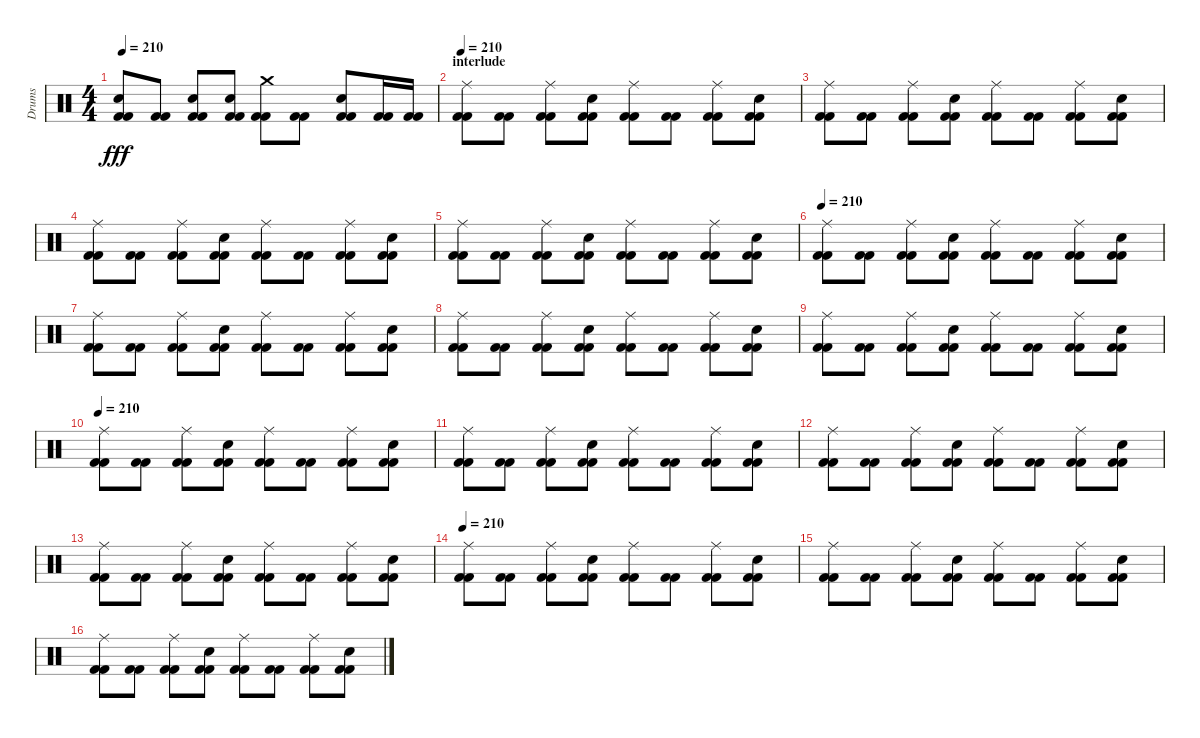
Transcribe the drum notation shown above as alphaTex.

\track ("Drums" "Drums") {instrument percussion}
\staff {score}
\articulation defaults
\ts (4 4)
\tempo 210
\clef neutral
\ks c
("Electric Snare (hit)" "Kick (hit) 2" "Kick (hit) 2").8{dy fff} ("Kick (hit) 2" "Kick (hit) 2").8 ("Electric Snare (hit)" "Kick (hit) 2" "Kick (hit) 2").8 ("Electric Snare (hit)" "Kick (hit) 2" "Kick (hit) 2").8 ("Crash medium (hit)" "Kick (hit) 2" "Kick (hit) 2").8 ("Kick (hit) 2" "Kick (hit) 2").8 ("Electric Snare (hit)" "Kick (hit) 2" "Kick (hit) 2").8 ("Kick (hit) 2" "Kick (hit) 2").16 ("Kick (hit) 2" "Kick (hit) 2").16 |
\section ("" "interlude")
\tempo 210
("Ride (middle)" "Kick (hit) 2" "Kick (hit) 2").8 ("Kick (hit) 2" "Kick (hit) 2").8 ("Ride (middle)" "Kick (hit) 2" "Kick (hit) 2").8 ("Electric Snare (hit)" "Kick (hit) 2" "Kick (hit) 2").8 ("Ride (middle)" "Kick (hit) 2" "Kick (hit) 2").8 ("Kick (hit) 2" "Kick (hit) 2").8 ("Ride (middle)" "Kick (hit) 2" "Kick (hit) 2").8 ("Electric Snare (hit)" "Kick (hit) 2" "Kick (hit) 2").8 |
("Ride (middle)" "Kick (hit) 2" "Kick (hit) 2").8 ("Kick (hit) 2" "Kick (hit) 2").8 ("Ride (middle)" "Kick (hit) 2" "Kick (hit) 2").8 ("Electric Snare (hit)" "Kick (hit) 2" "Kick (hit) 2").8 ("Ride (middle)" "Kick (hit) 2" "Kick (hit) 2").8 ("Kick (hit) 2" "Kick (hit) 2").8 ("Ride (middle)" "Kick (hit) 2" "Kick (hit) 2").8 ("Electric Snare (hit)" "Kick (hit) 2" "Kick (hit) 2").8 |
("Ride (middle)" "Kick (hit) 2" "Kick (hit) 2").8 ("Kick (hit) 2" "Kick (hit) 2").8 ("Ride (middle)" "Kick (hit) 2" "Kick (hit) 2").8 ("Electric Snare (hit)" "Kick (hit) 2" "Kick (hit) 2").8 ("Ride (middle)" "Kick (hit) 2" "Kick (hit) 2").8 ("Kick (hit) 2" "Kick (hit) 2").8 ("Ride (middle)" "Kick (hit) 2" "Kick (hit) 2").8 ("Electric Snare (hit)" "Kick (hit) 2" "Kick (hit) 2").8 |
("Ride (middle)" "Kick (hit) 2" "Kick (hit) 2").8 ("Kick (hit) 2" "Kick (hit) 2").8 ("Ride (middle)" "Kick (hit) 2" "Kick (hit) 2").8 ("Electric Snare (hit)" "Kick (hit) 2" "Kick (hit) 2").8 ("Ride (middle)" "Kick (hit) 2" "Kick (hit) 2").8 ("Kick (hit) 2" "Kick (hit) 2").8 ("Ride (middle)" "Kick (hit) 2" "Kick (hit) 2").8 ("Electric Snare (hit)" "Kick (hit) 2" "Kick (hit) 2").8 |
\tempo 210
("Ride (middle)" "Kick (hit) 2" "Kick (hit) 2").8 ("Kick (hit) 2" "Kick (hit) 2").8 ("Ride (middle)" "Kick (hit) 2" "Kick (hit) 2").8 ("Electric Snare (hit)" "Kick (hit) 2" "Kick (hit) 2").8 ("Ride (middle)" "Kick (hit) 2" "Kick (hit) 2").8 ("Kick (hit) 2" "Kick (hit) 2").8 ("Ride (middle)" "Kick (hit) 2" "Kick (hit) 2").8 ("Electric Snare (hit)" "Kick (hit) 2" "Kick (hit) 2").8 |
("Ride (middle)" "Kick (hit) 2" "Kick (hit) 2").8 ("Kick (hit) 2" "Kick (hit) 2").8 ("Ride (middle)" "Kick (hit) 2" "Kick (hit) 2").8 ("Electric Snare (hit)" "Kick (hit) 2" "Kick (hit) 2").8 ("Ride (middle)" "Kick (hit) 2" "Kick (hit) 2").8 ("Kick (hit) 2" "Kick (hit) 2").8 ("Ride (middle)" "Kick (hit) 2" "Kick (hit) 2").8 ("Electric Snare (hit)" "Kick (hit) 2" "Kick (hit) 2").8 |
("Ride (middle)" "Kick (hit) 2" "Kick (hit) 2").8 ("Kick (hit) 2" "Kick (hit) 2").8 ("Ride (middle)" "Kick (hit) 2" "Kick (hit) 2").8 ("Electric Snare (hit)" "Kick (hit) 2" "Kick (hit) 2").8 ("Ride (middle)" "Kick (hit) 2" "Kick (hit) 2").8 ("Kick (hit) 2" "Kick (hit) 2").8 ("Ride (middle)" "Kick (hit) 2" "Kick (hit) 2").8 ("Electric Snare (hit)" "Kick (hit) 2" "Kick (hit) 2").8 |
("Ride (middle)" "Kick (hit) 2" "Kick (hit) 2").8 ("Kick (hit) 2" "Kick (hit) 2").8 ("Ride (middle)" "Kick (hit) 2" "Kick (hit) 2").8 ("Electric Snare (hit)" "Kick (hit) 2" "Kick (hit) 2").8 ("Ride (middle)" "Kick (hit) 2" "Kick (hit) 2").8 ("Kick (hit) 2" "Kick (hit) 2").8 ("Ride (middle)" "Kick (hit) 2" "Kick (hit) 2").8 ("Electric Snare (hit)" "Kick (hit) 2" "Kick (hit) 2").8 |
\tempo 210
("Ride (middle)" "Kick (hit) 2" "Kick (hit) 2").8 ("Kick (hit) 2" "Kick (hit) 2").8 ("Ride (middle)" "Kick (hit) 2" "Kick (hit) 2").8 ("Electric Snare (hit)" "Kick (hit) 2" "Kick (hit) 2").8 ("Ride (middle)" "Kick (hit) 2" "Kick (hit) 2").8 ("Kick (hit) 2" "Kick (hit) 2").8 ("Ride (middle)" "Kick (hit) 2" "Kick (hit) 2").8 ("Electric Snare (hit)" "Kick (hit) 2" "Kick (hit) 2").8 |
("Ride (middle)" "Kick (hit) 2" "Kick (hit) 2").8 ("Kick (hit) 2" "Kick (hit) 2").8 ("Ride (middle)" "Kick (hit) 2" "Kick (hit) 2").8 ("Electric Snare (hit)" "Kick (hit) 2" "Kick (hit) 2").8 ("Ride (middle)" "Kick (hit) 2" "Kick (hit) 2").8 ("Kick (hit) 2" "Kick (hit) 2").8 ("Ride (middle)" "Kick (hit) 2" "Kick (hit) 2").8 ("Electric Snare (hit)" "Kick (hit) 2" "Kick (hit) 2").8 |
("Ride (middle)" "Kick (hit) 2" "Kick (hit) 2").8 ("Kick (hit) 2" "Kick (hit) 2").8 ("Ride (middle)" "Kick (hit) 2" "Kick (hit) 2").8 ("Electric Snare (hit)" "Kick (hit) 2" "Kick (hit) 2").8 ("Ride (middle)" "Kick (hit) 2" "Kick (hit) 2").8 ("Kick (hit) 2" "Kick (hit) 2").8 ("Ride (middle)" "Kick (hit) 2" "Kick (hit) 2").8 ("Electric Snare (hit)" "Kick (hit) 2" "Kick (hit) 2").8 |
("Ride (middle)" "Kick (hit) 2" "Kick (hit) 2").8 ("Kick (hit) 2" "Kick (hit) 2").8 ("Ride (middle)" "Kick (hit) 2" "Kick (hit) 2").8 ("Electric Snare (hit)" "Kick (hit) 2" "Kick (hit) 2").8 ("Ride (middle)" "Kick (hit) 2" "Kick (hit) 2").8 ("Kick (hit) 2" "Kick (hit) 2").8 ("Ride (middle)" "Kick (hit) 2" "Kick (hit) 2").8 ("Electric Snare (hit)" "Kick (hit) 2" "Kick (hit) 2").8 |
\tempo 210
("Ride (middle)" "Kick (hit) 2" "Kick (hit) 2").8 ("Kick (hit) 2" "Kick (hit) 2").8 ("Ride (middle)" "Kick (hit) 2" "Kick (hit) 2").8 ("Electric Snare (hit)" "Kick (hit) 2" "Kick (hit) 2").8 ("Ride (middle)" "Kick (hit) 2" "Kick (hit) 2").8 ("Kick (hit) 2" "Kick (hit) 2").8 ("Ride (middle)" "Kick (hit) 2" "Kick (hit) 2").8 ("Electric Snare (hit)" "Kick (hit) 2" "Kick (hit) 2").8 |
("Ride (middle)" "Kick (hit) 2" "Kick (hit) 2").8 ("Kick (hit) 2" "Kick (hit) 2").8 ("Ride (middle)" "Kick (hit) 2" "Kick (hit) 2").8 ("Electric Snare (hit)" "Kick (hit) 2" "Kick (hit) 2").8 ("Ride (middle)" "Kick (hit) 2" "Kick (hit) 2").8 ("Kick (hit) 2" "Kick (hit) 2").8 ("Ride (middle)" "Kick (hit) 2" "Kick (hit) 2").8 ("Electric Snare (hit)" "Kick (hit) 2" "Kick (hit) 2").8 |
("Ride (middle)" "Kick (hit) 2" "Kick (hit) 2").8 ("Kick (hit) 2" "Kick (hit) 2").8 ("Ride (middle)" "Kick (hit) 2" "Kick (hit) 2").8 ("Electric Snare (hit)" "Kick (hit) 2" "Kick (hit) 2").8 ("Ride (middle)" "Kick (hit) 2" "Kick (hit) 2").8 ("Kick (hit) 2" "Kick (hit) 2").8 ("Ride (middle)" "Kick (hit) 2" "Kick (hit) 2").8 ("Electric Snare (hit)" "Kick (hit) 2" "Kick (hit) 2").8
